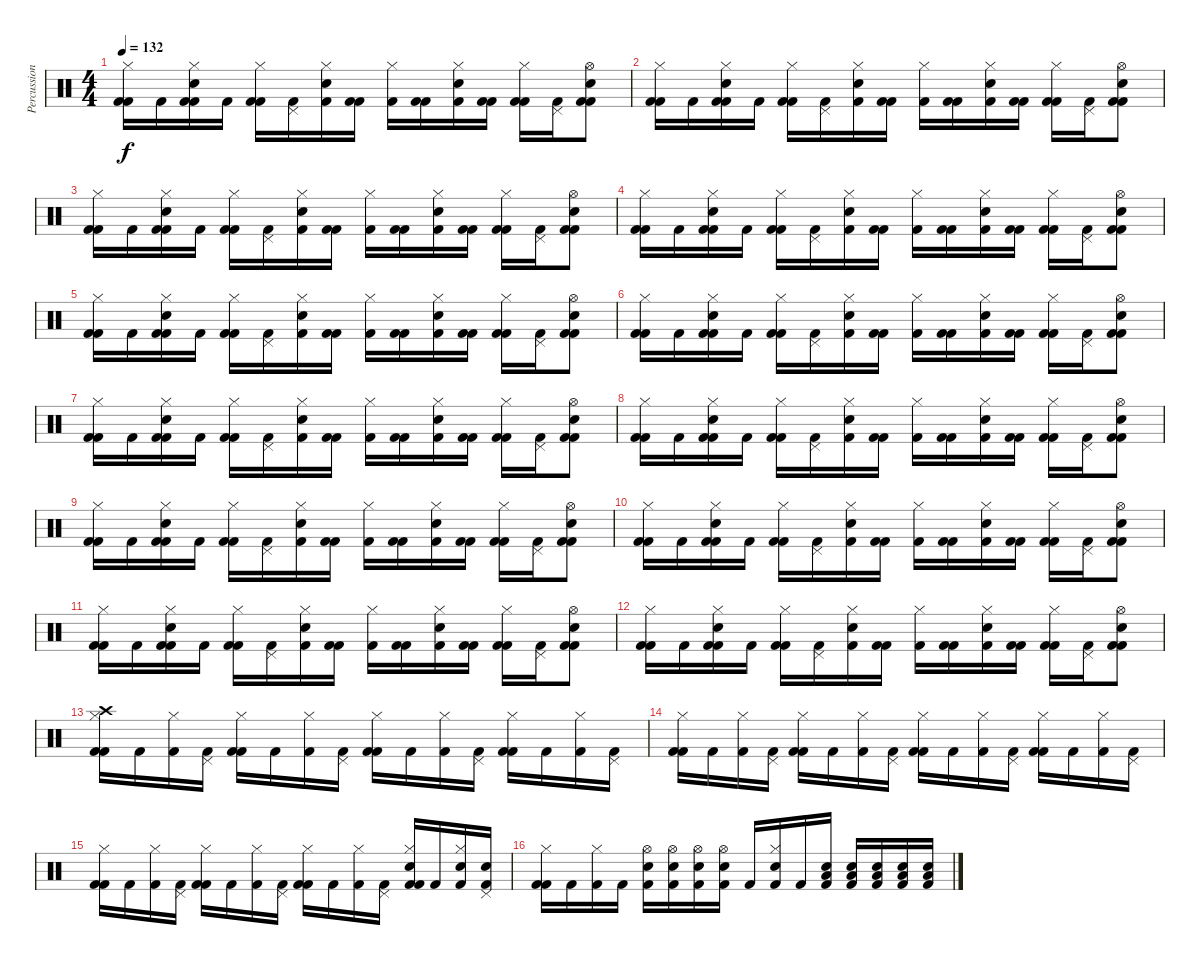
\track ("Percussion" "Percussion") {instrument percussion}
\staff {score}
\articulation defaults
\ts (4 4)
\tempo 132
\clef neutral
\ks c
("Kick (hit) 2" "Hi-Hat (closed)" "Kick (hit) 2").16{dy f} "Kick (hit) 2".16 ("Kick (hit) 2" "Snare (hit) 2" "Hi-Hat (closed)" "Kick (hit) 2").16 "Kick (hit) 2".16 ("Kick (hit) 2" "Hi-Hat (closed)" "Kick (hit) 2").16 ("Pedal Hi-Hat (hit)" "Kick (hit) 2").16 ("Snare (hit) 2" "Hi-Hat (closed)" "Kick (hit) 2").16 ("Kick (hit) 2" "Kick (hit) 2").16 ("Hi-Hat (closed)" "Kick (hit) 2").16 ("Kick (hit) 2" "Kick (hit) 2").16 ("Snare (hit) 2" "Hi-Hat (closed)" "Kick (hit) 2").16 ("Kick (hit) 2" "Kick (hit) 2").16 ("Kick (hit) 2" "Hi-Hat (closed)" "Kick (hit) 2").16 ("Pedal Hi-Hat (hit)" "Kick (hit) 2").16 ("Kick (hit) 2" "Snare (hit) 2" "Hi-Hat (open)" "Kick (hit) 2").8 |
("Kick (hit) 2" "Hi-Hat (closed)" "Kick (hit) 2").16 "Kick (hit) 2".16 ("Kick (hit) 2" "Snare (hit) 2" "Hi-Hat (closed)" "Kick (hit) 2").16 "Kick (hit) 2".16 ("Kick (hit) 2" "Hi-Hat (closed)" "Kick (hit) 2").16 ("Pedal Hi-Hat (hit)" "Kick (hit) 2").16 ("Snare (hit) 2" "Hi-Hat (closed)" "Kick (hit) 2").16 ("Kick (hit) 2" "Kick (hit) 2").16 ("Hi-Hat (closed)" "Kick (hit) 2").16 ("Kick (hit) 2" "Kick (hit) 2").16 ("Snare (hit) 2" "Hi-Hat (closed)" "Kick (hit) 2").16 ("Kick (hit) 2" "Kick (hit) 2").16 ("Kick (hit) 2" "Hi-Hat (closed)" "Kick (hit) 2").16 ("Pedal Hi-Hat (hit)" "Kick (hit) 2").16 ("Kick (hit) 2" "Snare (hit) 2" "Hi-Hat (open)" "Kick (hit) 2").8 |
("Kick (hit) 2" "Hi-Hat (closed)" "Kick (hit) 2").16 "Kick (hit) 2".16 ("Kick (hit) 2" "Snare (hit) 2" "Hi-Hat (closed)" "Kick (hit) 2").16 "Kick (hit) 2".16 ("Kick (hit) 2" "Hi-Hat (closed)" "Kick (hit) 2").16 ("Pedal Hi-Hat (hit)" "Kick (hit) 2").16 ("Snare (hit) 2" "Hi-Hat (closed)" "Kick (hit) 2").16 ("Kick (hit) 2" "Kick (hit) 2").16 ("Hi-Hat (closed)" "Kick (hit) 2").16 ("Kick (hit) 2" "Kick (hit) 2").16 ("Snare (hit) 2" "Hi-Hat (closed)" "Kick (hit) 2").16 ("Kick (hit) 2" "Kick (hit) 2").16 ("Kick (hit) 2" "Hi-Hat (closed)" "Kick (hit) 2").16 ("Pedal Hi-Hat (hit)" "Kick (hit) 2").16 ("Kick (hit) 2" "Snare (hit) 2" "Hi-Hat (open)" "Kick (hit) 2").8 |
("Kick (hit) 2" "Hi-Hat (closed)" "Kick (hit) 2").16 "Kick (hit) 2".16 ("Kick (hit) 2" "Snare (hit) 2" "Hi-Hat (closed)" "Kick (hit) 2").16 "Kick (hit) 2".16 ("Kick (hit) 2" "Hi-Hat (closed)" "Kick (hit) 2").16 ("Pedal Hi-Hat (hit)" "Kick (hit) 2").16 ("Snare (hit) 2" "Hi-Hat (closed)" "Kick (hit) 2").16 ("Kick (hit) 2" "Kick (hit) 2").16 ("Hi-Hat (closed)" "Kick (hit) 2").16 ("Kick (hit) 2" "Kick (hit) 2").16 ("Snare (hit) 2" "Hi-Hat (closed)" "Kick (hit) 2").16 ("Kick (hit) 2" "Kick (hit) 2").16 ("Kick (hit) 2" "Hi-Hat (closed)" "Kick (hit) 2").16 ("Pedal Hi-Hat (hit)" "Kick (hit) 2").16 ("Kick (hit) 2" "Snare (hit) 2" "Hi-Hat (open)" "Kick (hit) 2").8 |
("Kick (hit) 2" "Hi-Hat (closed)" "Kick (hit) 2").16 "Kick (hit) 2".16 ("Kick (hit) 2" "Snare (hit) 2" "Hi-Hat (closed)" "Kick (hit) 2").16 "Kick (hit) 2".16 ("Kick (hit) 2" "Hi-Hat (closed)" "Kick (hit) 2").16 ("Pedal Hi-Hat (hit)" "Kick (hit) 2").16 ("Snare (hit) 2" "Hi-Hat (closed)" "Kick (hit) 2").16 ("Kick (hit) 2" "Kick (hit) 2").16 ("Hi-Hat (closed)" "Kick (hit) 2").16 ("Kick (hit) 2" "Kick (hit) 2").16 ("Snare (hit) 2" "Hi-Hat (closed)" "Kick (hit) 2").16 ("Kick (hit) 2" "Kick (hit) 2").16 ("Kick (hit) 2" "Hi-Hat (closed)" "Kick (hit) 2").16 ("Pedal Hi-Hat (hit)" "Kick (hit) 2").16 ("Kick (hit) 2" "Snare (hit) 2" "Hi-Hat (open)" "Kick (hit) 2").8 |
("Kick (hit) 2" "Hi-Hat (closed)" "Kick (hit) 2").16 "Kick (hit) 2".16 ("Kick (hit) 2" "Snare (hit) 2" "Hi-Hat (closed)" "Kick (hit) 2").16 "Kick (hit) 2".16 ("Kick (hit) 2" "Hi-Hat (closed)" "Kick (hit) 2").16 ("Pedal Hi-Hat (hit)" "Kick (hit) 2").16 ("Snare (hit) 2" "Hi-Hat (closed)" "Kick (hit) 2").16 ("Kick (hit) 2" "Kick (hit) 2").16 ("Hi-Hat (closed)" "Kick (hit) 2").16 ("Kick (hit) 2" "Kick (hit) 2").16 ("Snare (hit) 2" "Hi-Hat (closed)" "Kick (hit) 2").16 ("Kick (hit) 2" "Kick (hit) 2").16 ("Kick (hit) 2" "Hi-Hat (closed)" "Kick (hit) 2").16 ("Pedal Hi-Hat (hit)" "Kick (hit) 2").16 ("Kick (hit) 2" "Snare (hit) 2" "Hi-Hat (open)" "Kick (hit) 2").8 |
("Kick (hit) 2" "Hi-Hat (closed)" "Kick (hit) 2").16 "Kick (hit) 2".16 ("Kick (hit) 2" "Snare (hit) 2" "Hi-Hat (closed)" "Kick (hit) 2").16 "Kick (hit) 2".16 ("Kick (hit) 2" "Hi-Hat (closed)" "Kick (hit) 2").16 ("Pedal Hi-Hat (hit)" "Kick (hit) 2").16 ("Snare (hit) 2" "Hi-Hat (closed)" "Kick (hit) 2").16 ("Kick (hit) 2" "Kick (hit) 2").16 ("Hi-Hat (closed)" "Kick (hit) 2").16 ("Kick (hit) 2" "Kick (hit) 2").16 ("Snare (hit) 2" "Hi-Hat (closed)" "Kick (hit) 2").16 ("Kick (hit) 2" "Kick (hit) 2").16 ("Kick (hit) 2" "Hi-Hat (closed)" "Kick (hit) 2").16 ("Pedal Hi-Hat (hit)" "Kick (hit) 2").16 ("Kick (hit) 2" "Snare (hit) 2" "Hi-Hat (open)" "Kick (hit) 2").8 |
("Kick (hit) 2" "Hi-Hat (closed)" "Kick (hit) 2").16 "Kick (hit) 2".16 ("Kick (hit) 2" "Snare (hit) 2" "Hi-Hat (closed)" "Kick (hit) 2").16 "Kick (hit) 2".16 ("Kick (hit) 2" "Hi-Hat (closed)" "Kick (hit) 2").16 ("Pedal Hi-Hat (hit)" "Kick (hit) 2").16 ("Snare (hit) 2" "Hi-Hat (closed)" "Kick (hit) 2").16 ("Kick (hit) 2" "Kick (hit) 2").16 ("Hi-Hat (closed)" "Kick (hit) 2").16 ("Kick (hit) 2" "Kick (hit) 2").16 ("Snare (hit) 2" "Hi-Hat (closed)" "Kick (hit) 2").16 ("Kick (hit) 2" "Kick (hit) 2").16 ("Kick (hit) 2" "Hi-Hat (closed)" "Kick (hit) 2").16 ("Pedal Hi-Hat (hit)" "Kick (hit) 2").16 ("Kick (hit) 2" "Snare (hit) 2" "Hi-Hat (open)" "Kick (hit) 2").8 |
("Kick (hit) 2" "Hi-Hat (closed)" "Kick (hit) 2").16 "Kick (hit) 2".16 ("Kick (hit) 2" "Snare (hit) 2" "Hi-Hat (closed)" "Kick (hit) 2").16 "Kick (hit) 2".16 ("Kick (hit) 2" "Hi-Hat (closed)" "Kick (hit) 2").16 ("Pedal Hi-Hat (hit)" "Kick (hit) 2").16 ("Snare (hit) 2" "Hi-Hat (closed)" "Kick (hit) 2").16 ("Kick (hit) 2" "Kick (hit) 2").16 ("Hi-Hat (closed)" "Kick (hit) 2").16 ("Kick (hit) 2" "Kick (hit) 2").16 ("Snare (hit) 2" "Hi-Hat (closed)" "Kick (hit) 2").16 ("Kick (hit) 2" "Kick (hit) 2").16 ("Kick (hit) 2" "Hi-Hat (closed)" "Kick (hit) 2").16 ("Pedal Hi-Hat (hit)" "Kick (hit) 2").16 ("Kick (hit) 2" "Snare (hit) 2" "Hi-Hat (open)" "Kick (hit) 2").8 |
("Kick (hit) 2" "Hi-Hat (closed)" "Kick (hit) 2").16 "Kick (hit) 2".16 ("Kick (hit) 2" "Snare (hit) 2" "Hi-Hat (closed)" "Kick (hit) 2").16 "Kick (hit) 2".16 ("Kick (hit) 2" "Hi-Hat (closed)" "Kick (hit) 2").16 ("Pedal Hi-Hat (hit)" "Kick (hit) 2").16 ("Snare (hit) 2" "Hi-Hat (closed)" "Kick (hit) 2").16 ("Kick (hit) 2" "Kick (hit) 2").16 ("Hi-Hat (closed)" "Kick (hit) 2").16 ("Kick (hit) 2" "Kick (hit) 2").16 ("Snare (hit) 2" "Hi-Hat (closed)" "Kick (hit) 2").16 ("Kick (hit) 2" "Kick (hit) 2").16 ("Kick (hit) 2" "Hi-Hat (closed)" "Kick (hit) 2").16 ("Pedal Hi-Hat (hit)" "Kick (hit) 2").16 ("Kick (hit) 2" "Snare (hit) 2" "Hi-Hat (open)" "Kick (hit) 2").8 |
("Kick (hit) 2" "Hi-Hat (closed)" "Kick (hit) 2").16 "Kick (hit) 2".16 ("Kick (hit) 2" "Snare (hit) 2" "Hi-Hat (closed)" "Kick (hit) 2").16 "Kick (hit) 2".16 ("Kick (hit) 2" "Hi-Hat (closed)" "Kick (hit) 2").16 ("Pedal Hi-Hat (hit)" "Kick (hit) 2").16 ("Snare (hit) 2" "Hi-Hat (closed)" "Kick (hit) 2").16 ("Kick (hit) 2" "Kick (hit) 2").16 ("Hi-Hat (closed)" "Kick (hit) 2").16 ("Kick (hit) 2" "Kick (hit) 2").16 ("Snare (hit) 2" "Hi-Hat (closed)" "Kick (hit) 2").16 ("Kick (hit) 2" "Kick (hit) 2").16 ("Kick (hit) 2" "Hi-Hat (closed)" "Kick (hit) 2").16 ("Pedal Hi-Hat (hit)" "Kick (hit) 2").16 ("Kick (hit) 2" "Snare (hit) 2" "Hi-Hat (open)" "Kick (hit) 2").8 |
("Kick (hit) 2" "Hi-Hat (closed)" "Kick (hit) 2").16 "Kick (hit) 2".16 ("Kick (hit) 2" "Snare (hit) 2" "Hi-Hat (closed)" "Kick (hit) 2").16 "Kick (hit) 2".16 ("Kick (hit) 2" "Hi-Hat (closed)" "Kick (hit) 2").16 ("Pedal Hi-Hat (hit)" "Kick (hit) 2").16 ("Snare (hit) 2" "Hi-Hat (closed)" "Kick (hit) 2").16 ("Kick (hit) 2" "Kick (hit) 2").16 ("Hi-Hat (closed)" "Kick (hit) 2").16 ("Kick (hit) 2" "Kick (hit) 2").16 ("Snare (hit) 2" "Hi-Hat (closed)" "Kick (hit) 2").16 ("Kick (hit) 2" "Kick (hit) 2").16 ("Kick (hit) 2" "Hi-Hat (closed)" "Kick (hit) 2").16 ("Pedal Hi-Hat (hit)" "Kick (hit) 2").16 ("Kick (hit) 2" "Snare (hit) 2" "Hi-Hat (open)" "Kick (hit) 2").8 |
("Kick (hit) 2" "Hi-Hat (closed)" "Crash high (hit)" "Kick (hit) 2").16 "Kick (hit) 2".16 ("Hi-Hat (closed)" "Kick (hit) 2").16 ("Pedal Hi-Hat (hit)" "Kick (hit) 2").16 ("Kick (hit) 2" "Hi-Hat (closed)" "Kick (hit) 2").16 "Kick (hit) 2".16 ("Hi-Hat (closed)" "Kick (hit) 2").16 ("Pedal Hi-Hat (hit)" "Kick (hit) 2").16 ("Kick (hit) 2" "Hi-Hat (closed)" "Kick (hit) 2").16 "Kick (hit) 2".16 ("Hi-Hat (closed)" "Kick (hit) 2").16 ("Pedal Hi-Hat (hit)" "Kick (hit) 2").16 ("Kick (hit) 2" "Hi-Hat (closed)" "Kick (hit) 2").16 "Kick (hit) 2".16 ("Hi-Hat (closed)" "Kick (hit) 2").16 ("Pedal Hi-Hat (hit)" "Kick (hit) 2").16 |
("Kick (hit) 2" "Hi-Hat (closed)" "Kick (hit) 2").16 "Kick (hit) 2".16 ("Hi-Hat (closed)" "Kick (hit) 2").16 ("Pedal Hi-Hat (hit)" "Kick (hit) 2").16 ("Kick (hit) 2" "Hi-Hat (closed)" "Kick (hit) 2").16 "Kick (hit) 2".16 ("Hi-Hat (closed)" "Kick (hit) 2").16 ("Pedal Hi-Hat (hit)" "Kick (hit) 2").16 ("Kick (hit) 2" "Hi-Hat (closed)" "Kick (hit) 2").16 "Kick (hit) 2".16 ("Hi-Hat (closed)" "Kick (hit) 2").16 ("Pedal Hi-Hat (hit)" "Kick (hit) 2").16 ("Kick (hit) 2" "Hi-Hat (closed)" "Kick (hit) 2").16 "Kick (hit) 2".16 ("Hi-Hat (closed)" "Kick (hit) 2").16 ("Pedal Hi-Hat (hit)" "Kick (hit) 2").16 |
("Kick (hit) 2" "Hi-Hat (closed)" "Kick (hit) 2").16 "Kick (hit) 2".16 ("Hi-Hat (closed)" "Kick (hit) 2").16 ("Pedal Hi-Hat (hit)" "Kick (hit) 2").16 ("Kick (hit) 2" "Hi-Hat (closed)" "Kick (hit) 2").16 "Kick (hit) 2".16 ("Hi-Hat (closed)" "Kick (hit) 2").16 ("Pedal Hi-Hat (hit)" "Kick (hit) 2").16 ("Kick (hit) 2" "Hi-Hat (closed)" "Kick (hit) 2").16 "Kick (hit) 2".16 ("Hi-Hat (closed)" "Kick (hit) 2").16 ("Pedal Hi-Hat (hit)" "Kick (hit) 2").16 ("Kick (hit) 2" "Snare (hit) 2" "Hi-Hat (closed)" "Kick (hit) 2").16 "Kick (hit) 2".16 ("Snare (hit) 2" "Hi-Hat (closed)" "Kick (hit) 2").16 ("Snare (hit) 2" "Pedal Hi-Hat (hit)" "Kick (hit) 2").16 |
("Kick (hit) 2" "Hi-Hat (closed)" "Kick (hit) 2").16 "Kick (hit) 2".16 ("Hi-Hat (closed)" "Kick (hit) 2").16 "Kick (hit) 2".16 ("Snare (hit) 2" "Hi-Hat (open)" "Kick (hit) 2").16 ("Snare (hit) 2" "Hi-Hat (open)" "Kick (hit) 2").16 ("Snare (hit) 2" "Hi-Hat (open)" "Kick (hit) 2").16 ("Snare (hit) 2" "Hi-Hat (open)" "Kick (hit) 2").16 "Kick (hit) 2".16 ("Snare (hit) 2" "Hi-Hat (closed)" "Kick (hit) 2").16 "Kick (hit) 2".16 ("Snare (hit) 2" "Low Floor Tom (hit)" "Kick (hit) 2").16 ("Snare (hit) 2" "Low Floor Tom (hit)" "Kick (hit) 2").16 ("Snare (hit) 2" "Low Floor Tom (hit)" "Kick (hit) 2").16 ("Snare (hit) 2" "Low Floor Tom (hit)" "Kick (hit) 2").16 ("Snare (hit) 2" "Low Floor Tom (hit)" "Kick (hit) 2").16
